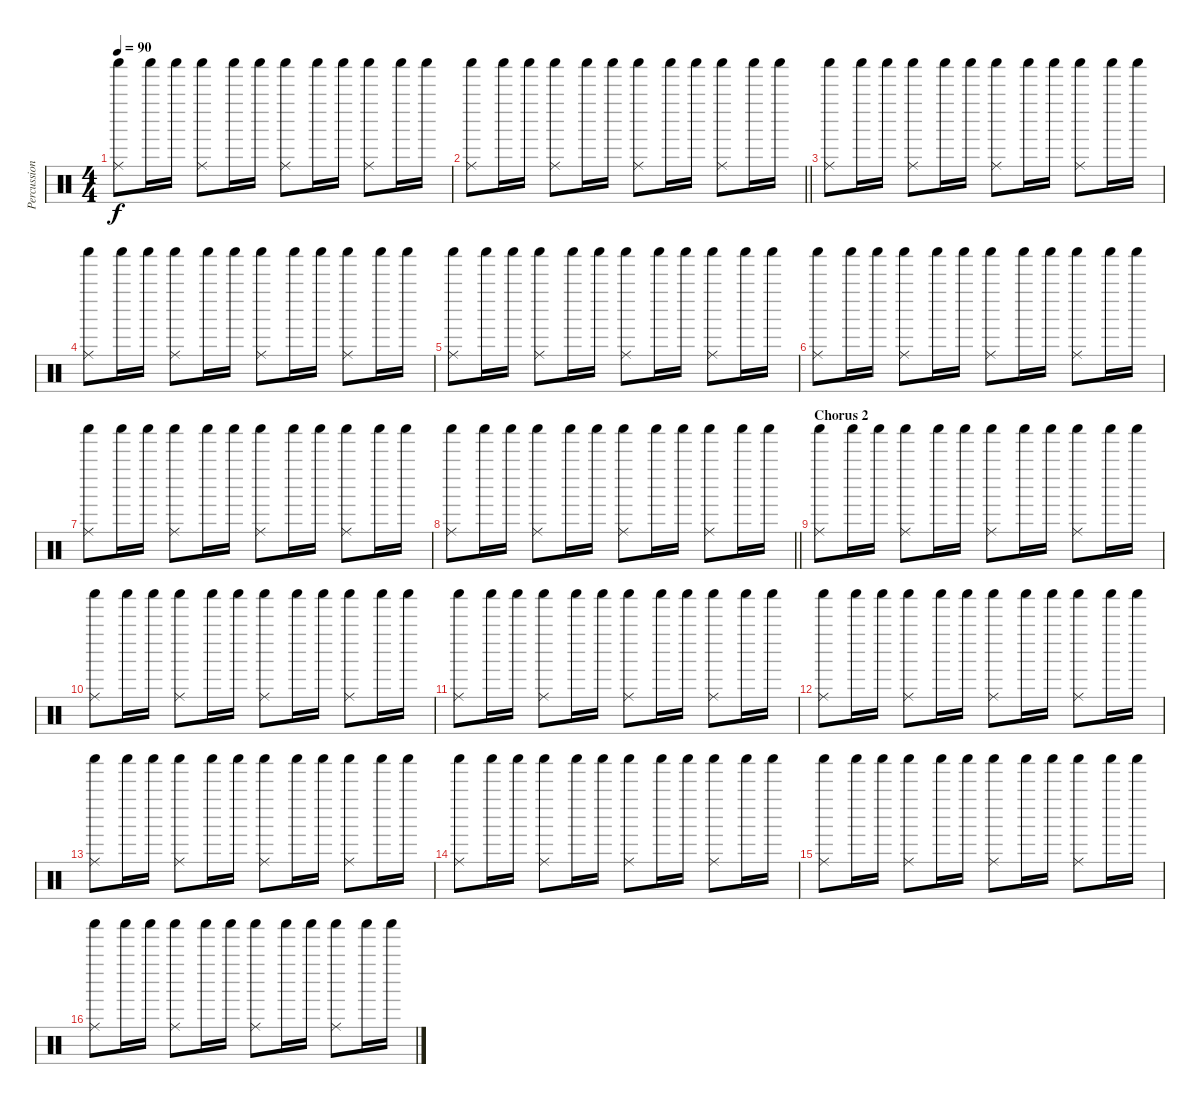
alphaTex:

\track ("Percussion (Chris Maitland)" "Percussion") {instrument percussion}
\staff {score}
\articulation defaults
\ts (4 4)
\tempo 90
\clef neutral
\ks c
("Ride (middle)" "Shaker (hit)").8{dy f} "Shaker (hit)".16 "Shaker (hit)".16 ("Ride (middle)" "Shaker (hit)").8 "Shaker (hit)".16 "Shaker (hit)".16 ("Ride (middle)" "Shaker (hit)").8 "Shaker (hit)".16 "Shaker (hit)".16 ("Ride (middle)" "Shaker (hit)").8 "Shaker (hit)".16 "Shaker (hit)".16 |
\barLineRight lightlight
("Ride (middle)" "Shaker (hit)").8 "Shaker (hit)".16 "Shaker (hit)".16 ("Ride (middle)" "Shaker (hit)").8 "Shaker (hit)".16 "Shaker (hit)".16 ("Ride (middle)" "Shaker (hit)").8 "Shaker (hit)".16 "Shaker (hit)".16 ("Ride (middle)" "Shaker (hit)").8 "Shaker (hit)".16 "Shaker (hit)".16 |
("Ride (middle)" "Shaker (hit)").8 "Shaker (hit)".16 "Shaker (hit)".16 ("Ride (middle)" "Shaker (hit)").8 "Shaker (hit)".16 "Shaker (hit)".16 ("Ride (middle)" "Shaker (hit)").8 "Shaker (hit)".16 "Shaker (hit)".16 ("Ride (middle)" "Shaker (hit)").8 "Shaker (hit)".16 "Shaker (hit)".16 |
("Ride (middle)" "Shaker (hit)").8 "Shaker (hit)".16 "Shaker (hit)".16 ("Ride (middle)" "Shaker (hit)").8 "Shaker (hit)".16 "Shaker (hit)".16 ("Ride (middle)" "Shaker (hit)").8 "Shaker (hit)".16 "Shaker (hit)".16 ("Ride (middle)" "Shaker (hit)").8 "Shaker (hit)".16 "Shaker (hit)".16 |
("Ride (middle)" "Shaker (hit)").8 "Shaker (hit)".16 "Shaker (hit)".16 ("Ride (middle)" "Shaker (hit)").8 "Shaker (hit)".16 "Shaker (hit)".16 ("Ride (middle)" "Shaker (hit)").8 "Shaker (hit)".16 "Shaker (hit)".16 ("Ride (middle)" "Shaker (hit)").8 "Shaker (hit)".16 "Shaker (hit)".16 |
("Ride (middle)" "Shaker (hit)").8 "Shaker (hit)".16 "Shaker (hit)".16 ("Ride (middle)" "Shaker (hit)").8 "Shaker (hit)".16 "Shaker (hit)".16 ("Ride (middle)" "Shaker (hit)").8 "Shaker (hit)".16 "Shaker (hit)".16 ("Ride (middle)" "Shaker (hit)").8 "Shaker (hit)".16 "Shaker (hit)".16 |
("Ride (middle)" "Shaker (hit)").8 "Shaker (hit)".16 "Shaker (hit)".16 ("Ride (middle)" "Shaker (hit)").8 "Shaker (hit)".16 "Shaker (hit)".16 ("Ride (middle)" "Shaker (hit)").8 "Shaker (hit)".16 "Shaker (hit)".16 ("Ride (middle)" "Shaker (hit)").8 "Shaker (hit)".16 "Shaker (hit)".16 |
\barLineRight lightlight
("Ride (middle)" "Shaker (hit)").8 "Shaker (hit)".16 "Shaker (hit)".16 ("Ride (middle)" "Shaker (hit)").8 "Shaker (hit)".16 "Shaker (hit)".16 ("Ride (middle)" "Shaker (hit)").8 "Shaker (hit)".16 "Shaker (hit)".16 ("Ride (middle)" "Shaker (hit)").8 "Shaker (hit)".16 "Shaker (hit)".16 |
\section ("" "Chorus 2")
("Ride (middle)" "Shaker (hit)").8 "Shaker (hit)".16 "Shaker (hit)".16 ("Ride (middle)" "Shaker (hit)").8 "Shaker (hit)".16 "Shaker (hit)".16 ("Ride (middle)" "Shaker (hit)").8 "Shaker (hit)".16 "Shaker (hit)".16 ("Ride (middle)" "Shaker (hit)").8 "Shaker (hit)".16 "Shaker (hit)".16 |
("Ride (middle)" "Shaker (hit)").8 "Shaker (hit)".16 "Shaker (hit)".16 ("Ride (middle)" "Shaker (hit)").8 "Shaker (hit)".16 "Shaker (hit)".16 ("Ride (middle)" "Shaker (hit)").8 "Shaker (hit)".16 "Shaker (hit)".16 ("Ride (middle)" "Shaker (hit)").8 "Shaker (hit)".16 "Shaker (hit)".16 |
("Ride (middle)" "Shaker (hit)").8 "Shaker (hit)".16 "Shaker (hit)".16 ("Ride (middle)" "Shaker (hit)").8 "Shaker (hit)".16 "Shaker (hit)".16 ("Ride (middle)" "Shaker (hit)").8 "Shaker (hit)".16 "Shaker (hit)".16 ("Ride (middle)" "Shaker (hit)").8 "Shaker (hit)".16 "Shaker (hit)".16 |
("Ride (middle)" "Shaker (hit)").8 "Shaker (hit)".16 "Shaker (hit)".16 ("Ride (middle)" "Shaker (hit)").8 "Shaker (hit)".16 "Shaker (hit)".16 ("Ride (middle)" "Shaker (hit)").8 "Shaker (hit)".16 "Shaker (hit)".16 ("Ride (middle)" "Shaker (hit)").8 "Shaker (hit)".16 "Shaker (hit)".16 |
("Ride (middle)" "Shaker (hit)").8 "Shaker (hit)".16 "Shaker (hit)".16 ("Ride (middle)" "Shaker (hit)").8 "Shaker (hit)".16 "Shaker (hit)".16 ("Ride (middle)" "Shaker (hit)").8 "Shaker (hit)".16 "Shaker (hit)".16 ("Ride (middle)" "Shaker (hit)").8 "Shaker (hit)".16 "Shaker (hit)".16 |
("Ride (middle)" "Shaker (hit)").8 "Shaker (hit)".16 "Shaker (hit)".16 ("Ride (middle)" "Shaker (hit)").8 "Shaker (hit)".16 "Shaker (hit)".16 ("Ride (middle)" "Shaker (hit)").8 "Shaker (hit)".16 "Shaker (hit)".16 ("Ride (middle)" "Shaker (hit)").8 "Shaker (hit)".16 "Shaker (hit)".16 |
("Ride (middle)" "Shaker (hit)").8 "Shaker (hit)".16 "Shaker (hit)".16 ("Ride (middle)" "Shaker (hit)").8 "Shaker (hit)".16 "Shaker (hit)".16 ("Ride (middle)" "Shaker (hit)").8 "Shaker (hit)".16 "Shaker (hit)".16 ("Ride (middle)" "Shaker (hit)").8 "Shaker (hit)".16 "Shaker (hit)".16 |
("Ride (middle)" "Shaker (hit)").8 "Shaker (hit)".16 "Shaker (hit)".16 ("Ride (middle)" "Shaker (hit)").8 "Shaker (hit)".16 "Shaker (hit)".16 ("Ride (middle)" "Shaker (hit)").8 "Shaker (hit)".16 "Shaker (hit)".16 ("Ride (middle)" "Shaker (hit)").8 "Shaker (hit)".16 "Shaker (hit)".16
